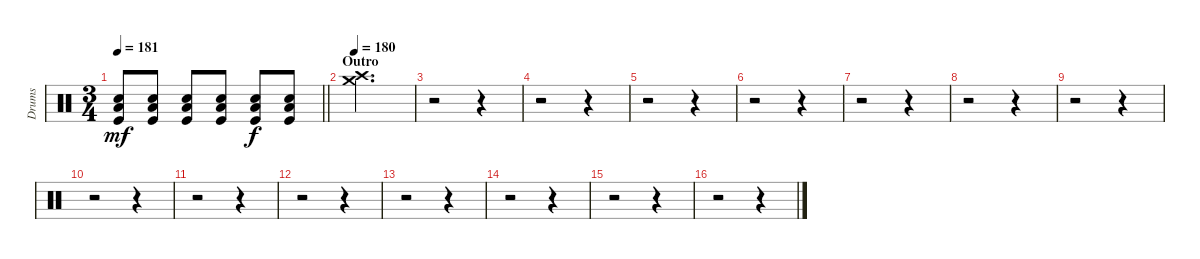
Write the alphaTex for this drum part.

\track ("Drums" "Drums") {instrument percussion}
\staff {score}
\articulation defaults
\ts (3 4)
\tempo 181
\clef neutral
\barLineRight lightlight
\ks c
("Electric Snare (hit)" "Low Floor Tom (hit)" "Kick (hit)").8{dy mf} ("Electric Snare (hit)" "Low Floor Tom (hit)" "Kick (hit)").8 ("Electric Snare (hit)" "Low Floor Tom (hit)" "Kick (hit)").8 ("Electric Snare (hit)" "Low Floor Tom (hit)" "Kick (hit)").8 ("Electric Snare (hit)" "Low Floor Tom (hit)" "Kick (hit)").8{dy f} ("Electric Snare (hit)" "Low Floor Tom (hit)" "Kick (hit)").8 |
\section ("" "Outro")
\tempo 180
("Crash medium (hit)" "Crash high (hit)").2{d} |
r.2 r.4 |
r.2 r.4 |
r.2 r.4 |
r.2 r.4 |
r.2 r.4 |
r.2 r.4 |
r.2 r.4 |
r.2 r.4 |
r.2 r.4 |
r.2 r.4 |
r.2 r.4 |
r.2 r.4 |
r.2 r.4 |
r.2 r.4
